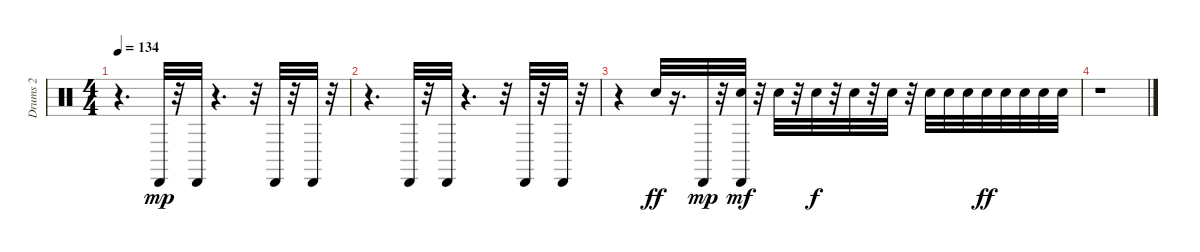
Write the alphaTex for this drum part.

\track ("Drums 2" "Drums 2") {instrument percussion}
\staff {score}
\articulation defaults
\ts (4 4)
\tempo 134
\clef neutral
\ks c
r.4{d dy mp} "Cabasa (hit)".32 r.32 "Cabasa (hit)".32 r.4{d} r.32 "Cabasa (hit)".32 r.32 "Cabasa (hit)".32 r.32 |
r.4{d} "Cabasa (hit)".32 r.32 "Cabasa (hit)".32 r.4{d} r.32 "Cabasa (hit)".32 r.32 "Cabasa (hit)".32 r.32 |
r.4 "Electric Snare (hit)".32{dy ff} r.16{d} "Cabasa (hit)".32{dy mp} r.32 ("Cabasa (hit)" "Electric Snare (hit)").32{dy mf} r.32 "Electric Snare (hit)".32 r.32 "Electric Snare (hit)".32{dy f} r.32 "Electric Snare (hit)".32 r.32 "Electric Snare (hit)".32 r.32 "Electric Snare (hit)".32 "Electric Snare (hit)".32 "Electric Snare (hit)".32 "Electric Snare (hit)".32{dy ff} "Electric Snare (hit)".32 "Electric Snare (hit)".32 "Electric Snare (hit)".32 "Electric Snare (hit)".32 |
r.1
